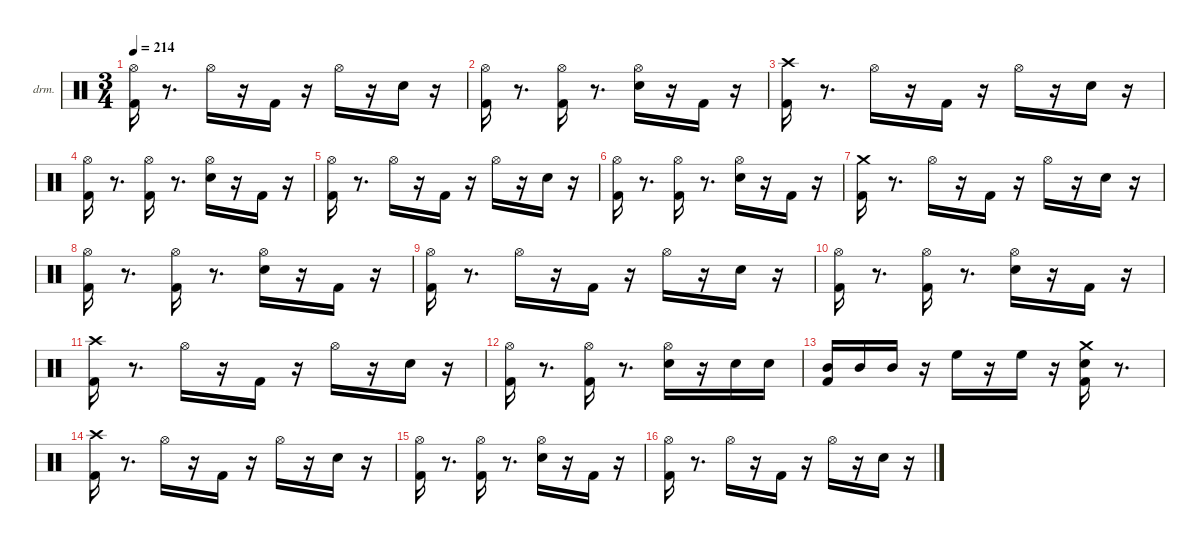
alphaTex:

\hideDynamics
\bracketExtendMode nobrackets
\firstSystemTrackNameOrientation horizontal
\track ("EZdrummer 3" "drm.") {instrument percussion}
\staff {score}
\articulation defaults
\ts (3 4)
\tempo 214
\clef neutral
\ks aminor
("Kick (hit) 2" "Hi-Hat (open)"{acc #}).16{dy fff} r.8{d} "Hi-Hat (open)"{acc #}.16{dy mf} r.16 "Kick (hit) 2".16{dy ff} r.16 "Hi-Hat (open)"{acc #}.16{dy f} r.16 "Snare (hit) 2".16{dy ff} r.16 |
("Kick (hit) 2" "Hi-Hat (open)"{acc #}).16{dy fff} r.8{d} ("Kick (hit) 2" "Hi-Hat (open)"{acc #}).16{dy ff} r.8{d} ("Snare (hit) 2" "Hi-Hat (open)"{acc #}).16{dy f} r.16 "Kick (hit) 2".16{dy mp} r.16 |
("Kick (hit) 2" "Crash high (hit)"{acc #}).16{dy fff} r.8{d} "Hi-Hat (open)"{acc #}.16{dy mf} r.16 "Kick (hit) 2".16{dy ff} r.16 "Hi-Hat (open)"{acc #}.16{dy f} r.16 "Snare (hit) 2".16{dy ff} r.16 |
("Kick (hit) 2" "Hi-Hat (open)"{acc #}).16 r.8{d} ("Kick (hit) 2" "Hi-Hat (open)"{acc #}).16{dy f} r.8{d} ("Snare (hit) 2" "Hi-Hat (open)"{acc #}).16 r.16 "Kick (hit) 2".16{dy mp} r.16 |
("Kick (hit) 2" "Hi-Hat (open)"{acc #}).16{dy fff} r.8{d} "Hi-Hat (open)"{acc #}.16{dy mf} r.16 "Kick (hit) 2".16{dy ff} r.16 "Hi-Hat (open)"{acc #}.16{dy f} r.16 "Snare (hit) 2".16{dy ff} r.16 |
("Kick (hit) 2" "Hi-Hat (open)"{acc #}).16{dy fff} r.8{d} ("Kick (hit) 2" "Hi-Hat (open)"{acc #}).16{dy ff} r.8{d} ("Snare (hit) 2" "Hi-Hat (open)"{acc #}).16{dy f} r.16 "Kick (hit) 2".16{dy mp} r.16 |
("Kick (hit) 2" "Crash medium (hit)").16{dy fff} r.8{d} "Hi-Hat (open)"{acc #}.16{dy mf} r.16 "Kick (hit) 2".16{dy ff} r.16 "Hi-Hat (open)"{acc #}.16{dy f} r.16 "Snare (hit) 2".16{dy ff} r.16 |
("Kick (hit) 2" "Hi-Hat (open)"{acc #}).16 r.8{d} ("Kick (hit) 2" "Hi-Hat (open)"{acc #}).16{dy mf} r.8{d} ("Snare (hit) 2" "Hi-Hat (open)"{acc #}).16{dy f} r.16 "Kick (hit) 2".16{dy mp} r.16 |
("Kick (hit) 2" "Hi-Hat (open)"{acc #}).16{dy fff} r.8{d} "Hi-Hat (open)"{acc #}.16{dy mf} r.16 "Kick (hit) 2".16{dy ff} r.16 "Hi-Hat (open)"{acc #}.16{dy f} r.16 "Snare (hit) 2".16{dy ff} r.16 |
("Kick (hit) 2" "Hi-Hat (open)"{acc #}).16{dy fff} r.8{d} ("Kick (hit) 2" "Hi-Hat (open)"{acc #}).16{dy ff} r.8{d} ("Snare (hit) 2" "Hi-Hat (open)"{acc #}).16{dy f} r.16 "Kick (hit) 2".16{dy mp} r.16 |
("Kick (hit) 2" "Crash high (hit)"{acc #}).16{dy ff} r.8{d} "Hi-Hat (open)"{acc #}.16{dy f} r.16 "Kick (hit) 2".16{dy ff} r.16 "Hi-Hat (open)"{acc #}.16 r.16 "Snare (hit) 2".16 r.16 |
("Kick (hit) 2" "Hi-Hat (open)"{acc #}).16{dy f} r.8{d} ("Kick (hit) 2" "Hi-Hat (open)"{acc #}).16{dy mf} r.8{d} ("Snare (hit) 2" "Hi-Hat (open)"{acc #}).16{dy ff} r.16 "Snare (hit) 2".16{dy mf} "Snare (hit) 2".16{dy pp} |
("Kick (hit) 2" "Mid Tom (hit)").16{dy ff} "Mid Tom (hit)".16{dy mf} "Mid Tom (hit)".16{dy fff} r.16 "High Floor Tom (hit)".16{dy ff} r.16 "High Floor Tom (hit)".16{dy mf} r.16 ("Kick (hit) 2" "Snare (hit) 2" "Crash medium (hit)").16{dy f} r.8{d} |
("Kick (hit) 2" "Crash high (hit)"{acc #}).16{dy fff} r.8{d} "Hi-Hat (open)"{acc #}.16{dy mf} r.16 "Kick (hit) 2".16{dy ff} r.16 "Hi-Hat (open)"{acc #}.16{dy f} r.16 "Snare (hit) 2".16{dy ff} r.16 |
("Kick (hit) 2" "Hi-Hat (open)"{acc #}).16 r.8{d} ("Kick (hit) 2" "Hi-Hat (open)"{acc #}).16{dy f} r.8{d} ("Snare (hit) 2" "Hi-Hat (open)"{acc #}).16 r.16 "Kick (hit) 2".16{dy mp} r.16 |
("Kick (hit) 2" "Hi-Hat (open)"{acc #}).16{dy fff} r.8{d} "Hi-Hat (open)"{acc #}.16{dy mf} r.16 "Kick (hit) 2".16{dy ff} r.16 "Hi-Hat (open)"{acc #}.16{dy f} r.16 "Snare (hit) 2".16{dy ff} r.16
